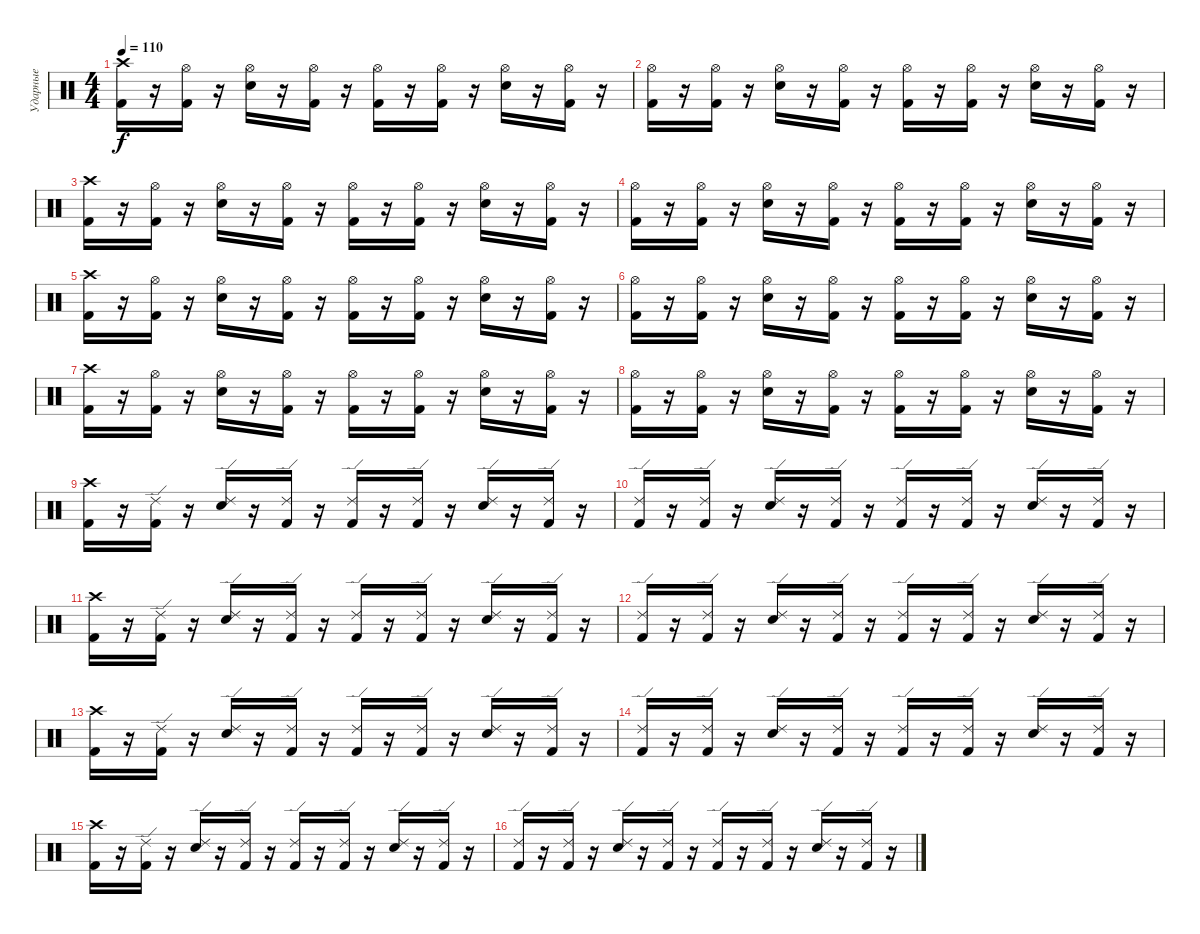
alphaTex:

\track ("Ударные" "Ударные") {instrument percussion}
\staff {score}
\articulation defaults
\ts (4 4)
\tempo 110
\clef neutral
\ks c
("Crash high (hit)" "Kick (hit) 2").16{dy f} r.16 ("Hi-Hat (open)" "Kick (hit) 2").16 r.16 ("Hi-Hat (open)" "Electric Snare (hit)").16 r.16 ("Hi-Hat (open)" "Kick (hit) 2").16 r.16 ("Hi-Hat (open)" "Kick (hit) 2").16 r.16 ("Hi-Hat (open)" "Kick (hit) 2").16 r.16 ("Hi-Hat (open)" "Electric Snare (hit)").16 r.16 ("Hi-Hat (open)" "Kick (hit) 2").16 r.16 |
("Hi-Hat (open)" "Kick (hit) 2").16 r.16 ("Hi-Hat (open)" "Kick (hit) 2").16 r.16 ("Hi-Hat (open)" "Electric Snare (hit)").16 r.16 ("Hi-Hat (open)" "Kick (hit) 2").16 r.16 ("Hi-Hat (open)" "Kick (hit) 2").16 r.16 ("Hi-Hat (open)" "Kick (hit) 2").16 r.16 ("Hi-Hat (open)" "Electric Snare (hit)").16 r.16 ("Hi-Hat (open)" "Kick (hit) 2").16 r.16 |
("Crash high (hit)" "Kick (hit) 2").16 r.16 ("Hi-Hat (open)" "Kick (hit) 2").16 r.16 ("Hi-Hat (open)" "Electric Snare (hit)").16 r.16 ("Hi-Hat (open)" "Kick (hit) 2").16 r.16 ("Hi-Hat (open)" "Kick (hit) 2").16 r.16 ("Hi-Hat (open)" "Kick (hit) 2").16 r.16 ("Hi-Hat (open)" "Electric Snare (hit)").16 r.16 ("Hi-Hat (open)" "Kick (hit) 2").16 r.16 |
("Hi-Hat (open)" "Kick (hit) 2").16 r.16 ("Hi-Hat (open)" "Kick (hit) 2").16 r.16 ("Hi-Hat (open)" "Electric Snare (hit)").16 r.16 ("Hi-Hat (open)" "Kick (hit) 2").16 r.16 ("Hi-Hat (open)" "Kick (hit) 2").16 r.16 ("Hi-Hat (open)" "Kick (hit) 2").16 r.16 ("Hi-Hat (open)" "Electric Snare (hit)").16 r.16 ("Hi-Hat (open)" "Kick (hit) 2").16 r.16 |
("Crash high (hit)" "Kick (hit) 2").16 r.16 ("Hi-Hat (open)" "Kick (hit) 2").16 r.16 ("Hi-Hat (open)" "Electric Snare (hit)").16 r.16 ("Hi-Hat (open)" "Kick (hit) 2").16 r.16 ("Hi-Hat (open)" "Kick (hit) 2").16 r.16 ("Hi-Hat (open)" "Kick (hit) 2").16 r.16 ("Hi-Hat (open)" "Electric Snare (hit)").16 r.16 ("Hi-Hat (open)" "Kick (hit) 2").16 r.16 |
("Hi-Hat (open)" "Kick (hit) 2").16 r.16 ("Hi-Hat (open)" "Kick (hit) 2").16 r.16 ("Hi-Hat (open)" "Electric Snare (hit)").16 r.16 ("Hi-Hat (open)" "Kick (hit) 2").16 r.16 ("Hi-Hat (open)" "Kick (hit) 2").16 r.16 ("Hi-Hat (open)" "Kick (hit) 2").16 r.16 ("Hi-Hat (open)" "Electric Snare (hit)").16 r.16 ("Hi-Hat (open)" "Kick (hit) 2").16 r.16 |
("Crash high (hit)" "Kick (hit) 2").16 r.16 ("Hi-Hat (open)" "Kick (hit) 2").16 r.16 ("Hi-Hat (open)" "Electric Snare (hit)").16 r.16 ("Hi-Hat (open)" "Kick (hit) 2").16 r.16 ("Hi-Hat (open)" "Kick (hit) 2").16 r.16 ("Hi-Hat (open)" "Kick (hit) 2").16 r.16 ("Hi-Hat (open)" "Electric Snare (hit)").16 r.16 ("Hi-Hat (open)" "Kick (hit) 2").16 r.16 |
("Hi-Hat (open)" "Kick (hit) 2").16 r.16 ("Hi-Hat (open)" "Kick (hit) 2").16 r.16 ("Hi-Hat (open)" "Electric Snare (hit)").16 r.16 ("Hi-Hat (open)" "Kick (hit) 2").16 r.16 ("Hi-Hat (open)" "Kick (hit) 2").16 r.16 ("Hi-Hat (open)" "Kick (hit) 2").16 r.16 ("Hi-Hat (open)" "Electric Snare (hit)").16 r.16 ("Hi-Hat (open)" "Kick (hit) 2").16 r.16 |
("Crash high (hit)" "Kick (hit) 2").16 r.16 ("Ride (edge) 2" "Kick (hit) 2").16 r.16 ("Ride (edge) 2" "Electric Snare (hit)").16 r.16 ("Ride (edge) 2" "Kick (hit) 2").16 r.16 ("Ride (edge) 2" "Kick (hit) 2").16 r.16 ("Ride (edge) 2" "Kick (hit) 2").16 r.16 ("Ride (edge) 2" "Electric Snare (hit)").16 r.16 ("Ride (edge) 2" "Kick (hit) 2").16 r.16 |
("Ride (edge) 2" "Kick (hit) 2").16 r.16 ("Ride (edge) 2" "Kick (hit) 2").16 r.16 ("Ride (edge) 2" "Electric Snare (hit)").16 r.16 ("Ride (edge) 2" "Kick (hit) 2").16 r.16 ("Ride (edge) 2" "Kick (hit) 2").16 r.16 ("Ride (edge) 2" "Kick (hit) 2").16 r.16 ("Ride (edge) 2" "Electric Snare (hit)").16 r.16 ("Ride (edge) 2" "Kick (hit) 2").16 r.16 |
("Crash high (hit)" "Kick (hit) 2").16 r.16 ("Ride (edge) 2" "Kick (hit) 2").16 r.16 ("Ride (edge) 2" "Electric Snare (hit)").16 r.16 ("Ride (edge) 2" "Kick (hit) 2").16 r.16 ("Ride (edge) 2" "Kick (hit) 2").16 r.16 ("Ride (edge) 2" "Kick (hit) 2").16 r.16 ("Ride (edge) 2" "Electric Snare (hit)").16 r.16 ("Ride (edge) 2" "Kick (hit) 2").16 r.16 |
("Ride (edge) 2" "Kick (hit) 2").16 r.16 ("Ride (edge) 2" "Kick (hit) 2").16 r.16 ("Ride (edge) 2" "Electric Snare (hit)").16 r.16 ("Ride (edge) 2" "Kick (hit) 2").16 r.16 ("Ride (edge) 2" "Kick (hit) 2").16 r.16 ("Ride (edge) 2" "Kick (hit) 2").16 r.16 ("Ride (edge) 2" "Electric Snare (hit)").16 r.16 ("Ride (edge) 2" "Kick (hit) 2").16 r.16 |
("Crash high (hit)" "Kick (hit) 2").16 r.16 ("Ride (edge) 2" "Kick (hit) 2").16 r.16 ("Ride (edge) 2" "Electric Snare (hit)").16 r.16 ("Ride (edge) 2" "Kick (hit) 2").16 r.16 ("Ride (edge) 2" "Kick (hit) 2").16 r.16 ("Ride (edge) 2" "Kick (hit) 2").16 r.16 ("Ride (edge) 2" "Electric Snare (hit)").16 r.16 ("Ride (edge) 2" "Kick (hit) 2").16 r.16 |
("Ride (edge) 2" "Kick (hit) 2").16 r.16 ("Ride (edge) 2" "Kick (hit) 2").16 r.16 ("Ride (edge) 2" "Electric Snare (hit)").16 r.16 ("Ride (edge) 2" "Kick (hit) 2").16 r.16 ("Ride (edge) 2" "Kick (hit) 2").16 r.16 ("Ride (edge) 2" "Kick (hit) 2").16 r.16 ("Ride (edge) 2" "Electric Snare (hit)").16 r.16 ("Ride (edge) 2" "Kick (hit) 2").16 r.16 |
("Crash high (hit)" "Kick (hit) 2").16 r.16 ("Ride (edge) 2" "Kick (hit) 2").16 r.16 ("Ride (edge) 2" "Electric Snare (hit)").16 r.16 ("Ride (edge) 2" "Kick (hit) 2").16 r.16 ("Ride (edge) 2" "Kick (hit) 2").16 r.16 ("Ride (edge) 2" "Kick (hit) 2").16 r.16 ("Ride (edge) 2" "Electric Snare (hit)").16 r.16 ("Ride (edge) 2" "Kick (hit) 2").16 r.16 |
("Ride (edge) 2" "Kick (hit) 2").16 r.16 ("Ride (edge) 2" "Kick (hit) 2").16 r.16 ("Ride (edge) 2" "Electric Snare (hit)").16 r.16 ("Ride (edge) 2" "Kick (hit) 2").16 r.16 ("Ride (edge) 2" "Kick (hit) 2").16 r.16 ("Ride (edge) 2" "Kick (hit) 2").16 r.16 ("Ride (edge) 2" "Electric Snare (hit)").16 r.16 ("Ride (edge) 2" "Kick (hit) 2").16 r.16
